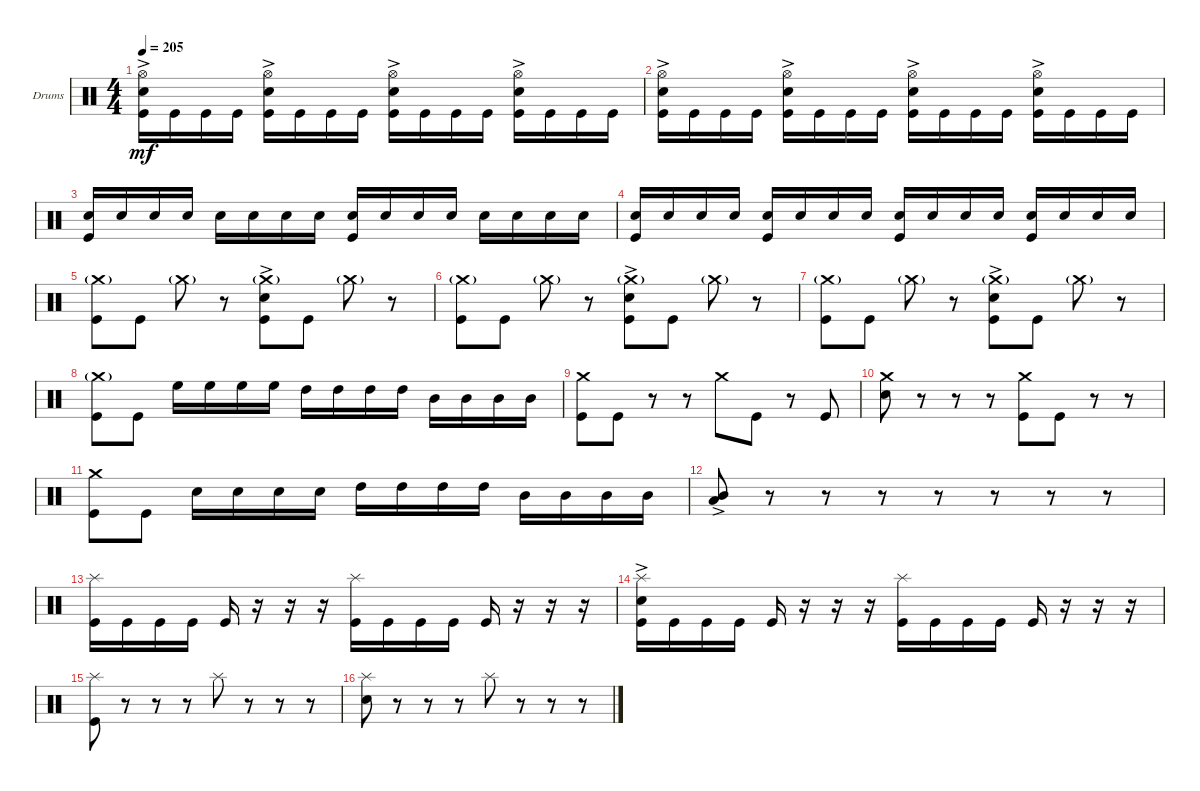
\defaultSystemsLayout 4
\bracketExtendMode groupsimilarinstruments
\firstSystemTrackNameOrientation horizontal
\otherSystemsTrackNameOrientation horizontal
\track ("Drumkit" "Drums") {instrument percussion}
\staff {score}
\articulation defaults
\ts (4 4)
\tempo 205
\clef neutral
\ks c
("Snare (hit) 2"{ac} "Kick (hit)" "Hi-Hat (open)").16{dy mf} "Kick (hit)".16 "Kick (hit)".16 "Kick (hit)".16 ("Snare (hit) 2"{ac} "Kick (hit)" "Hi-Hat (open)").16 "Kick (hit)".16 "Kick (hit)".16 "Kick (hit)".16 ("Snare (hit) 2"{ac} "Kick (hit)" "Hi-Hat (open)"{ac}).16 "Kick (hit)".16 "Kick (hit)".16 "Kick (hit)".16 ("Snare (hit) 2"{ac} "Kick (hit)" "Hi-Hat (open)"{ac}).16 "Kick (hit)".16 "Kick (hit)".16 "Kick (hit)".16 |
("Snare (hit) 2"{ac} "Kick (hit)" "Hi-Hat (open)").16 "Kick (hit)".16 "Kick (hit)".16 "Kick (hit)".16 ("Snare (hit) 2"{ac} "Kick (hit)" "Hi-Hat (open)").16 "Kick (hit)".16 "Kick (hit)".16 "Kick (hit)".16 ("Snare (hit) 2"{ac} "Kick (hit)" "Hi-Hat (open)"{ac}).16 "Kick (hit)".16 "Kick (hit)".16 "Kick (hit)".16 ("Snare (hit) 2"{ac} "Kick (hit)" "Hi-Hat (open)"{ac}).16 "Kick (hit)".16 "Kick (hit)".16 "Kick (hit)".16 |
("Snare (hit) 2" "Kick (hit)").16 "Snare (hit) 2".16 "Snare (hit) 2".16 "Snare (hit) 2".16 "Snare (hit) 2".16 "Snare (hit) 2".16 "Snare (hit) 2".16 "Snare (hit) 2".16 ("Snare (hit) 2" "Kick (hit)").16 "Snare (hit) 2".16 "Snare (hit) 2".16 "Snare (hit) 2".16 "Snare (hit) 2".16 "Snare (hit) 2".16 "Snare (hit) 2".16 "Snare (hit) 2".16 |
("Snare (hit) 2" "Kick (hit)").16 "Snare (hit) 2".16 "Snare (hit) 2".16 "Snare (hit) 2".16 ("Snare (hit) 2" "Kick (hit)").16 "Snare (hit) 2".16 "Snare (hit) 2".16 "Snare (hit) 2".16 ("Snare (hit) 2" "Kick (hit)").16 "Snare (hit) 2".16 "Snare (hit) 2".16 "Snare (hit) 2".16 ("Snare (hit) 2" "Kick (hit)").16 "Snare (hit) 2".16 "Snare (hit) 2".16 "Snare (hit) 2".16 |
("Kick (hit)" "Crash medium (hit)"{g}).8 "Kick (hit)".8 "Crash medium (hit)"{g}.8 r.8 ("Snare (hit) 2"{ac} "Kick (hit)" "Crash medium (hit)"{g}).8 "Kick (hit)".8 "Crash medium (hit)"{g}.8 r.8 |
("Kick (hit)" "Crash medium (hit)"{g}).8 "Kick (hit)".8 "Crash medium (hit)"{g}.8 r.8 ("Snare (hit) 2"{ac} "Kick (hit)" "Crash medium (hit)"{g}).8 "Kick (hit)".8 "Crash medium (hit)"{g}.8 r.8 |
("Kick (hit)" "Crash medium (hit)"{g}).8 "Kick (hit)".8 "Crash medium (hit)"{g}.8 r.8 ("Snare (hit) 2"{ac} "Kick (hit)" "Crash medium (hit)"{g}).8 "Kick (hit)".8 "Crash medium (hit)"{g}.8 r.8 |
("Kick (hit)" "Crash medium (hit)"{g}).8 "Kick (hit)".8 "High Floor Tom (hit)".16 "High Floor Tom (hit)".16 "High Floor Tom (hit)".16 "High Floor Tom (hit)".16 "High Tom (hit)".16 "High Tom (hit)".16 "High Tom (hit)".16 "High Tom (hit)".16 "Mid Tom (hit)".16 "Mid Tom (hit)".16 "Mid Tom (hit)".16 "Mid Tom (hit)".16 |
("Kick (hit)" "Crash medium (hit)").8 "Kick (hit)".8 r.8 r.8 "Crash medium (hit)".8 "Kick (hit)".8 r.8 "Kick (hit)".8 |
("Snare (hit) 2" "Crash medium (hit)").8 r.8 r.8 r.8 ("Kick (hit)" "Crash medium (hit)").8 "Kick (hit)".8 r.8 r.8 |
("Kick (hit)" "Crash medium (hit)").8 "Kick (hit)".8 "Snare (hit) 2".16 "Snare (hit) 2".16 "Snare (hit) 2".16 "Snare (hit) 2".16 "High Tom (hit)".16 "High Tom (hit)".16 "High Tom (hit)".16 "High Tom (hit)".16 "Mid Tom (hit)".16 "Mid Tom (hit)".16 "Mid Tom (hit)".16 "Mid Tom (hit)".16 |
("Mid Tom (hit)"{ac} "Low Tom (hit)"{ac}).8 r.8 r.8 r.8 r.8 r.8 r.8 r.8 |
("Kick (hit)" "Splash (hit)").16 "Kick (hit)".16 "Kick (hit)".16 "Kick (hit)".16 "Kick (hit)".16 r.16 r.16 r.16 ("Kick (hit)" "Splash (hit)").16 "Kick (hit)".16 "Kick (hit)".16 "Kick (hit)".16 "Kick (hit)".16 r.16 r.16 r.16 |
("Kick (hit)" "Splash (hit)" "Snare (hit) 2"{ac}).16 "Kick (hit)".16 "Kick (hit)".16 "Kick (hit)".16 "Kick (hit)".16 r.16 r.16 r.16 ("Kick (hit)" "Splash (hit)").16 "Kick (hit)".16 "Kick (hit)".16 "Kick (hit)".16 "Kick (hit)".16 r.16 r.16 r.16 |
("Kick (hit)" "Splash (hit)").8 r.8 r.8 r.8 "Splash (hit)".8 r.8 r.8 r.8 |
("Snare (hit) 2" "Splash (hit)").8 r.8 r.8 r.8 "Splash (hit)".8 r.8 r.8 r.8
